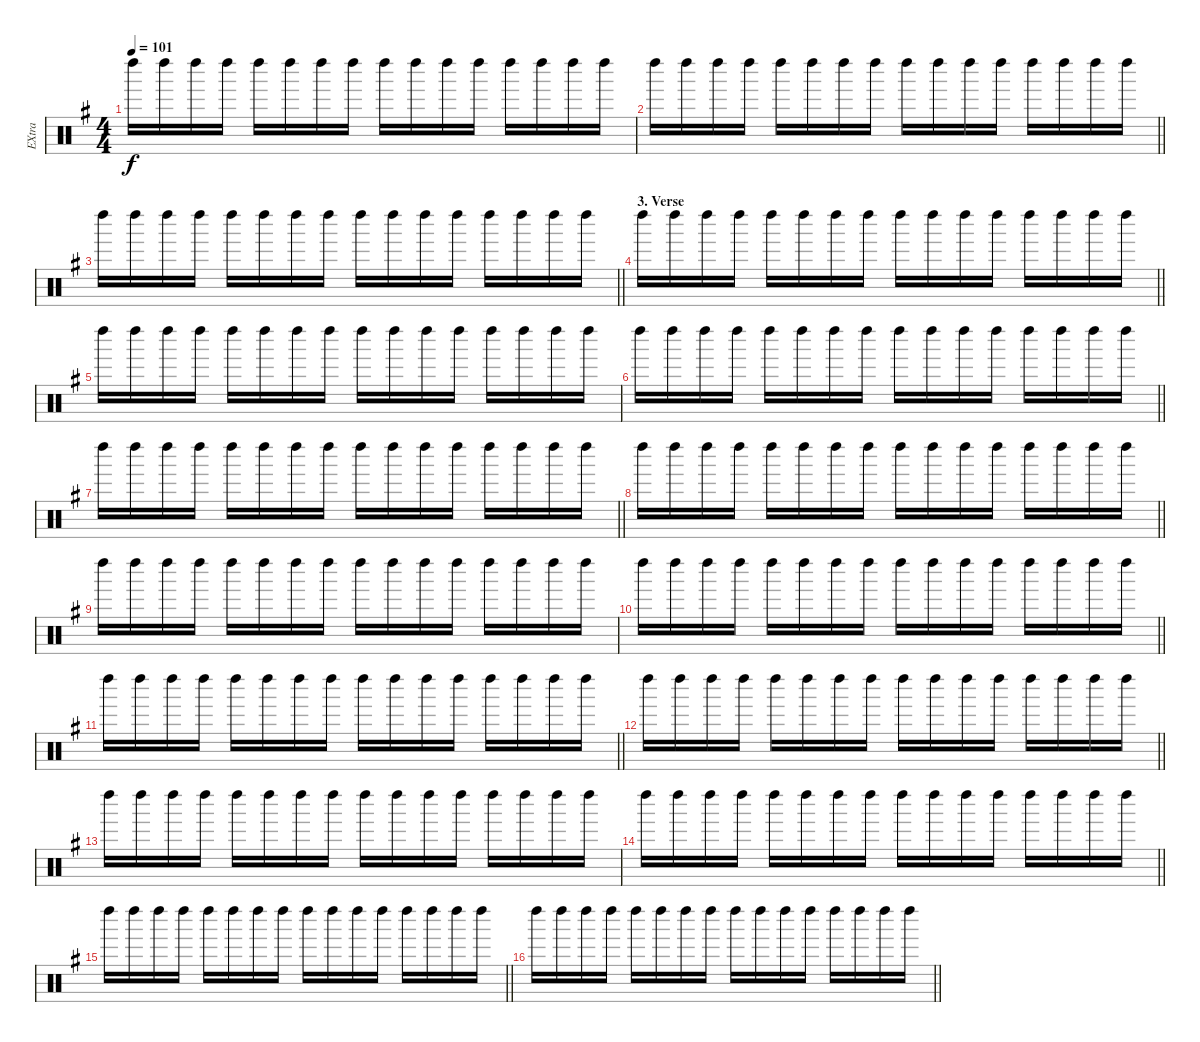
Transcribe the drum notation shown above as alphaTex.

\track ("EXtra" "EXtra") {instrument percussion}
\staff {score}
\articulation defaults
\ts (4 4)
\tempo 101
\clef neutral
\ks g "Left Maraca (hit)".16{dy f} "Left Maraca (hit)".16 "Left Maraca (hit)".16 "Left Maraca (hit)".16 "Left Maraca (hit)".16 "Left Maraca (hit)".16 "Left Maraca (hit)".16 "Left Maraca (hit)".16 "Left Maraca (hit)".16 "Left Maraca (hit)".16 "Left Maraca (hit)".16 "Left Maraca (hit)".16 "Left Maraca (hit)".16 "Left Maraca (hit)".16 "Left Maraca (hit)".16 "Left Maraca (hit)".16
|
\barLineRight lightlight "Left Maraca (hit)".16 "Left Maraca (hit)".16 "Left Maraca (hit)".16 "Left Maraca (hit)".16 "Left Maraca (hit)".16 "Left Maraca (hit)".16 "Left Maraca (hit)".16 "Left Maraca (hit)".16 "Left Maraca (hit)".16 "Left Maraca (hit)".16 "Left Maraca (hit)".16 "Left Maraca (hit)".16 "Left Maraca (hit)".16 "Left Maraca (hit)".16 "Left Maraca (hit)".16 "Left Maraca (hit)".16
|
\barLineRight lightlight "Left Maraca (hit)".16 "Left Maraca (hit)".16 "Left Maraca (hit)".16 "Left Maraca (hit)".16 "Left Maraca (hit)".16 "Left Maraca (hit)".16 "Left Maraca (hit)".16 "Left Maraca (hit)".16 "Left Maraca (hit)".16 "Left Maraca (hit)".16 "Left Maraca (hit)".16 "Left Maraca (hit)".16 "Left Maraca (hit)".16 "Left Maraca (hit)".16 "Left Maraca (hit)".16 "Left Maraca (hit)".16
|
\section ("" "3. Verse")
\barLineRight lightlight "Left Maraca (hit)".16 "Left Maraca (hit)".16 "Left Maraca (hit)".16 "Left Maraca (hit)".16 "Left Maraca (hit)".16 "Left Maraca (hit)".16 "Left Maraca (hit)".16 "Left Maraca (hit)".16 "Left Maraca (hit)".16 "Left Maraca (hit)".16 "Left Maraca (hit)".16 "Left Maraca (hit)".16 "Left Maraca (hit)".16 "Left Maraca (hit)".16 "Left Maraca (hit)".16 "Left Maraca (hit)".16
|
"Left Maraca (hit)".16 "Left Maraca (hit)".16 "Left Maraca (hit)".16 "Left Maraca (hit)".16 "Left Maraca (hit)".16 "Left Maraca (hit)".16 "Left Maraca (hit)".16 "Left Maraca (hit)".16 "Left Maraca (hit)".16 "Left Maraca (hit)".16 "Left Maraca (hit)".16 "Left Maraca (hit)".16 "Left Maraca (hit)".16 "Left Maraca (hit)".16 "Left Maraca (hit)".16 "Left Maraca (hit)".16 |
\barLineRight lightlight "Left Maraca (hit)".16 "Left Maraca (hit)".16 "Left Maraca (hit)".16 "Left Maraca (hit)".16 "Left Maraca (hit)".16 "Left Maraca (hit)".16 "Left Maraca (hit)".16 "Left Maraca (hit)".16 "Left Maraca (hit)".16 "Left Maraca (hit)".16 "Left Maraca (hit)".16 "Left Maraca (hit)".16 "Left Maraca (hit)".16 "Left Maraca (hit)".16 "Left Maraca (hit)".16 "Left Maraca (hit)".16
|
\barLineRight lightlight "Left Maraca (hit)".16 "Left Maraca (hit)".16 "Left Maraca (hit)".16 "Left Maraca (hit)".16 "Left Maraca (hit)".16 "Left Maraca (hit)".16 "Left Maraca (hit)".16 "Left Maraca (hit)".16 "Left Maraca (hit)".16 "Left Maraca (hit)".16 "Left Maraca (hit)".16 "Left Maraca (hit)".16 "Left Maraca (hit)".16 "Left Maraca (hit)".16 "Left Maraca (hit)".16 "Left Maraca (hit)".16
|
\barLineRight lightlight "Left Maraca (hit)".16 "Left Maraca (hit)".16 "Left Maraca (hit)".16 "Left Maraca (hit)".16 "Left Maraca (hit)".16 "Left Maraca (hit)".16 "Left Maraca (hit)".16 "Left Maraca (hit)".16 "Left Maraca (hit)".16 "Left Maraca (hit)".16 "Left Maraca (hit)".16 "Left Maraca (hit)".16 "Left Maraca (hit)".16 "Left Maraca (hit)".16 "Left Maraca (hit)".16 "Left Maraca (hit)".16
|
"Left Maraca (hit)".16 "Left Maraca (hit)".16 "Left Maraca (hit)".16 "Left Maraca (hit)".16 "Left Maraca (hit)".16 "Left Maraca (hit)".16 "Left Maraca (hit)".16 "Left Maraca (hit)".16 "Left Maraca (hit)".16 "Left Maraca (hit)".16 "Left Maraca (hit)".16 "Left Maraca (hit)".16 "Left Maraca (hit)".16 "Left Maraca (hit)".16 "Left Maraca (hit)".16 "Left Maraca (hit)".16 |
\barLineRight lightlight "Left Maraca (hit)".16 "Left Maraca (hit)".16 "Left Maraca (hit)".16 "Left Maraca (hit)".16 "Left Maraca (hit)".16 "Left Maraca (hit)".16 "Left Maraca (hit)".16 "Left Maraca (hit)".16 "Left Maraca (hit)".16 "Left Maraca (hit)".16 "Left Maraca (hit)".16 "Left Maraca (hit)".16 "Left Maraca (hit)".16 "Left Maraca (hit)".16 "Left Maraca (hit)".16 "Left Maraca (hit)".16
|
\barLineRight lightlight "Left Maraca (hit)".16 "Left Maraca (hit)".16 "Left Maraca (hit)".16 "Left Maraca (hit)".16 "Left Maraca (hit)".16 "Left Maraca (hit)".16 "Left Maraca (hit)".16 "Left Maraca (hit)".16 "Left Maraca (hit)".16 "Left Maraca (hit)".16 "Left Maraca (hit)".16 "Left Maraca (hit)".16 "Left Maraca (hit)".16 "Left Maraca (hit)".16 "Left Maraca (hit)".16 "Left Maraca (hit)".16
|
\barLineRight lightlight "Left Maraca (hit)".16 "Left Maraca (hit)".16 "Left Maraca (hit)".16 "Left Maraca (hit)".16 "Left Maraca (hit)".16 "Left Maraca (hit)".16 "Left Maraca (hit)".16 "Left Maraca (hit)".16 "Left Maraca (hit)".16 "Left Maraca (hit)".16 "Left Maraca (hit)".16 "Left Maraca (hit)".16 "Left Maraca (hit)".16 "Left Maraca (hit)".16 "Left Maraca (hit)".16 "Left Maraca (hit)".16
|
"Left Maraca (hit)".16 "Left Maraca (hit)".16 "Left Maraca (hit)".16 "Left Maraca (hit)".16 "Left Maraca (hit)".16 "Left Maraca (hit)".16 "Left Maraca (hit)".16 "Left Maraca (hit)".16 "Left Maraca (hit)".16 "Left Maraca (hit)".16 "Left Maraca (hit)".16 "Left Maraca (hit)".16 "Left Maraca (hit)".16 "Left Maraca (hit)".16 "Left Maraca (hit)".16 "Left Maraca (hit)".16 |
\barLineRight lightlight "Left Maraca (hit)".16 "Left Maraca (hit)".16 "Left Maraca (hit)".16 "Left Maraca (hit)".16 "Left Maraca (hit)".16 "Left Maraca (hit)".16 "Left Maraca (hit)".16 "Left Maraca (hit)".16 "Left Maraca (hit)".16 "Left Maraca (hit)".16 "Left Maraca (hit)".16 "Left Maraca (hit)".16 "Left Maraca (hit)".16 "Left Maraca (hit)".16 "Left Maraca (hit)".16 "Left Maraca (hit)".16
|
\barLineRight lightlight "Left Maraca (hit)".16 "Left Maraca (hit)".16 "Left Maraca (hit)".16 "Left Maraca (hit)".16 "Left Maraca (hit)".16 "Left Maraca (hit)".16 "Left Maraca (hit)".16 "Left Maraca (hit)".16 "Left Maraca (hit)".16 "Left Maraca (hit)".16 "Left Maraca (hit)".16 "Left Maraca (hit)".16 "Left Maraca (hit)".16 "Left Maraca (hit)".16 "Left Maraca (hit)".16 "Left Maraca (hit)".16
|
\barLineRight lightlight "Left Maraca (hit)".16 "Left Maraca (hit)".16 "Left Maraca (hit)".16 "Left Maraca (hit)".16 "Left Maraca (hit)".16 "Left Maraca (hit)".16 "Left Maraca (hit)".16 "Left Maraca (hit)".16 "Left Maraca (hit)".16 "Left Maraca (hit)".16 "Left Maraca (hit)".16 "Left Maraca (hit)".16 "Left Maraca (hit)".16 "Left Maraca (hit)".16 "Left Maraca (hit)".16 "Left Maraca (hit)".16
